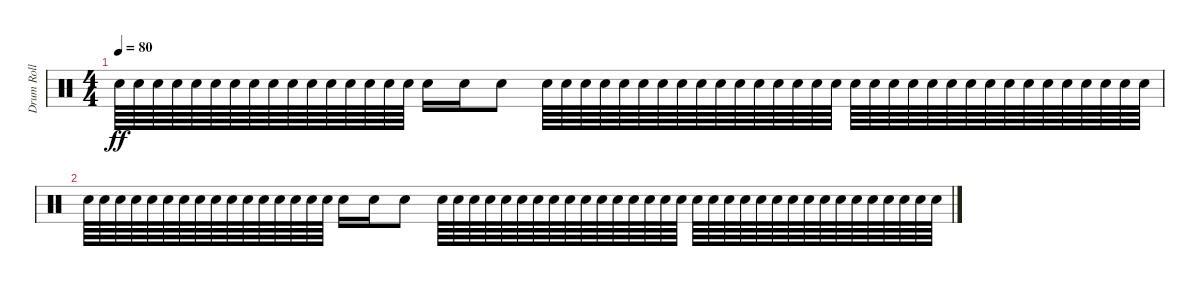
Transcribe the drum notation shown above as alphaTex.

\track ("Drum Roll" "Drum Roll") {instrument percussion}
\staff {score}
\articulation defaults
\ts (4 4)
\tempo 80
\clef neutral
\ks c "Snare (hit) 2".64{dy ff} "Snare (hit) 2".64 "Snare (hit) 2".64 "Snare (hit) 2".64 "Snare (hit) 2".64 "Snare (hit) 2".64 "Snare (hit) 2".64 "Snare (hit) 2".64 "Snare (hit) 2".64 "Snare (hit) 2".64 "Snare (hit) 2".64 "Snare (hit) 2".64 "Snare (hit) 2".64 "Snare (hit) 2".64 "Snare (hit) 2".64 "Snare (hit) 2".64 "Snare (hit) 2".16 "Snare (hit) 2".16 "Snare (hit) 2".8 "Snare (hit) 2".64 "Snare (hit) 2".64 "Snare (hit) 2".64 "Snare (hit) 2".64 "Snare (hit) 2".64 "Snare (hit) 2".64 "Snare (hit) 2".64 "Snare (hit) 2".64 "Snare (hit) 2".64 "Snare (hit) 2".64 "Snare (hit) 2".64 "Snare (hit) 2".64 "Snare (hit) 2".64 "Snare (hit) 2".64 "Snare (hit) 2".64 "Snare (hit) 2".64 "Snare (hit) 2".64 "Snare (hit) 2".64 "Snare (hit) 2".64 "Snare (hit) 2".64 "Snare (hit) 2".64 "Snare (hit) 2".64 "Snare (hit) 2".64 "Snare (hit) 2".64 "Snare (hit) 2".64 "Snare (hit) 2".64 "Snare (hit) 2".64 "Snare (hit) 2".64 "Snare (hit) 2".64 "Snare (hit) 2".64 "Snare (hit) 2".64 "Snare (hit) 2".64
|
"Snare (hit) 2".64 "Snare (hit) 2".64 "Snare (hit) 2".64 "Snare (hit) 2".64 "Snare (hit) 2".64 "Snare (hit) 2".64 "Snare (hit) 2".64 "Snare (hit) 2".64 "Snare (hit) 2".64 "Snare (hit) 2".64 "Snare (hit) 2".64 "Snare (hit) 2".64 "Snare (hit) 2".64 "Snare (hit) 2".64 "Snare (hit) 2".64 "Snare (hit) 2".64 "Snare (hit) 2".16 "Snare (hit) 2".16 "Snare (hit) 2".8 "Snare (hit) 2".64 "Snare (hit) 2".64 "Snare (hit) 2".64 "Snare (hit) 2".64 "Snare (hit) 2".64 "Snare (hit) 2".64 "Snare (hit) 2".64 "Snare (hit) 2".64 "Snare (hit) 2".64 "Snare (hit) 2".64 "Snare (hit) 2".64 "Snare (hit) 2".64 "Snare (hit) 2".64 "Snare (hit) 2".64 "Snare (hit) 2".64 "Snare (hit) 2".64 "Snare (hit) 2".64 "Snare (hit) 2".64 "Snare (hit) 2".64 "Snare (hit) 2".64 "Snare (hit) 2".64 "Snare (hit) 2".64 "Snare (hit) 2".64 "Snare (hit) 2".64 "Snare (hit) 2".64 "Snare (hit) 2".64 "Snare (hit) 2".64 "Snare (hit) 2".64 "Snare (hit) 2".64 "Snare (hit) 2".64 "Snare (hit) 2".64 "Snare (hit) 2".64
